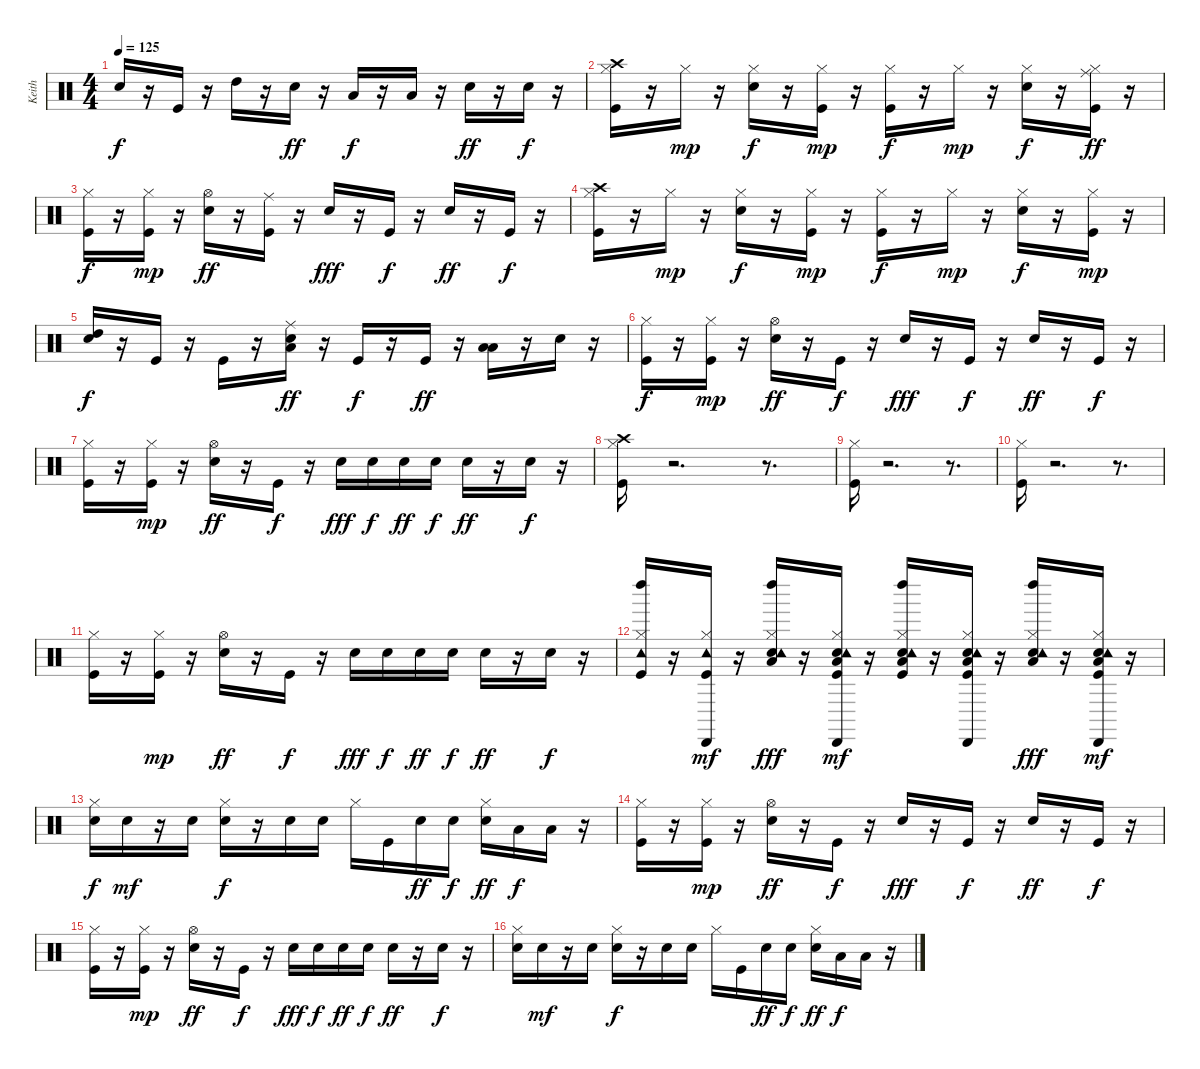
\track ("Keith" "Keith") {instrument percussion}
\staff {score}
\articulation defaults
\ts (4 4)
\tempo 125
\clef neutral
\ks c "Snare (hit) 2".16{dy f}
r.16 "Kick (hit)".16 r.16 "High Tom (hit)".16 r.16 "Snare (hit) 2".16{dy ff} r.16 "Low Tom (hit)".16{dy f} r.16 "Low Tom (hit)".16 r.16 "Snare (hit) 2".16{dy ff} r.16 "Snare (hit) 2".16{dy f} r.16 |
("Kick (hit)" "Hi-Hat (closed)" "Crash high (hit)").16 r.16 "Hi-Hat (closed)".16{dy mp} r.16 ("Snare (hit) 2" "Hi-Hat (closed)").16{dy f} r.16 ("Kick (hit)" "Hi-Hat (closed)").16{dy mp} r.16 ("Kick (hit)" "Hi-Hat (closed)").16{dy f} r.16 "Hi-Hat (closed)".16{dy mp} r.16 ("Snare (hit) 2" "Hi-Hat (closed)").16{dy f} r.16 ("Kick (hit)" "Hi-Hat (closed)" "Ride (middle)").16{dy ff} r.16 |
("Kick (hit)" "Hi-Hat (closed)").16{dy f} r.16 ("Kick (hit)" "Hi-Hat (closed)").16{dy mp} r.16 ("Snare (hit) 2" "Hi-Hat (open)").16{dy ff} r.16 ("Kick (hit)" "Ride (middle)").16 r.16 "Snare (hit) 2".16{dy fff} r.16 "Kick (hit)".16{dy f} r.16 "Snare (hit) 2".16{dy ff} r.16 "Kick (hit)".16{dy f} r.16 |
("Kick (hit)" "Hi-Hat (closed)" "Crash high (hit)").16 r.16 "Hi-Hat (closed)".16{dy mp} r.16 ("Snare (hit) 2" "Hi-Hat (closed)").16{dy f} r.16 ("Kick (hit)" "Hi-Hat (closed)").16{dy mp} r.16 ("Kick (hit)" "Hi-Hat (closed)").16{dy f} r.16 "Hi-Hat (closed)".16{dy mp} r.16 ("Snare (hit) 2" "Hi-Hat (closed)").16{dy f} r.16 ("Kick (hit)" "Hi-Hat (closed)").16{dy mp} r.16 |
("Snare (hit) 2" "High Tom (hit)").16{dy f} r.16 "Kick (hit)".16 r.16 "Kick (hit)".16 r.16 ("Snare (hit) 2" "Ride (middle)" "Low Tom (hit)").16{dy ff} r.16 "Kick (hit)".16{dy f} r.16 "Kick (hit)".16{dy ff} r.16 ("Low Floor Tom (hit)" "Low Tom (hit)").16 r.16 "Snare (hit) 2".16 r.16 |
("Kick (hit)" "Hi-Hat (closed)").16{dy f} r.16 ("Kick (hit)" "Hi-Hat (closed)").16{dy mp} r.16 ("Snare (hit) 2" "Hi-Hat (open)").16{dy ff} r.16 "Kick (hit)".16{dy f} r.16 "Snare (hit) 2".16{dy fff} r.16 "Kick (hit)".16{dy f} r.16 "Snare (hit) 2".16{dy ff} r.16 "Kick (hit)".16{dy f} r.16 |
("Kick (hit)" "Hi-Hat (closed)").16 r.16 ("Kick (hit)" "Hi-Hat (closed)").16{dy mp} r.16 ("Snare (hit) 2" "Hi-Hat (open)").16{dy ff} r.16 "Kick (hit)".16{dy f} r.16 "Snare (hit) 2".16{dy fff} "Snare (hit) 2".16{dy f} "Snare (hit) 2".16{dy ff} "Snare (hit) 2".16{dy f} "Snare (hit) 2".16{dy ff} r.16 "Snare (hit) 2".16{dy f} r.16 |
("Kick (hit)" "Hi-Hat (closed)" "Crash high (hit)").16 r.2{d} r.8{d} |
("Kick (hit)" "Hi-Hat (closed)").16 r.2{d} r.8{d} |
("Kick (hit)" "Hi-Hat (closed)").16 r.2{d} r.8{d} |
("Kick (hit)" "Hi-Hat (closed)").16 r.16 ("Kick (hit)" "Hi-Hat (closed)").16{dy mp} r.16 ("Snare (hit) 2" "Hi-Hat (open)").16{dy ff} r.16 "Kick (hit)".16{dy f} r.16 "Snare (hit) 2".16{dy fff} "Snare (hit) 2".16{dy f} "Snare (hit) 2".16{dy ff} "Snare (hit) 2".16{dy f} "Snare (hit) 2".16{dy ff} r.16 "Snare (hit) 2".16{dy f} r.16 |
("Kick (hit)" "Hi-Hat (closed)" "Tambourine (hit)" "Left Maraca (hit)").16 r.16 ("Kick (hit)" "Hi-Hat (closed)" "Tambourine (hit)" "Cabasa (hit)").16{dy mf} r.16 ("Snare (hit) 2" "Hi-Hat (closed)" "Low Floor Tom (hit)" "Tambourine (hit)" "Left Maraca (hit)").16{dy fff} r.16 ("Kick (hit)" "Snare (hit) 2" "Hi-Hat (closed)" "Low Floor Tom (hit)" "Tambourine (hit)" "Cabasa (hit)").16{dy mf} r.16 ("Kick (hit)" "Snare (hit) 2" "Hi-Hat (closed)" "Low Floor Tom (hit)" "Tambourine (hit)" "Left Maraca (hit)").16 r.16 ("Kick (hit)" "Snare (hit) 2" "Hi-Hat (closed)" "Low Floor Tom (hit)" "Tambourine (hit)" "Cabasa (hit)").16 r.16 ("Snare (hit) 2" "Hi-Hat (closed)" "Low Floor Tom (hit)" "Tambourine (hit)" "Left Maraca (hit)").16{dy fff} r.16 ("Kick (hit)" "Snare (hit) 2" "Hi-Hat (closed)" "Low Floor Tom (hit)" "Tambourine (hit)" "Cabasa (hit)").16{dy mf} r.16 |
("Snare (hit) 2" "Hi-Hat (closed)").16{dy f} "Snare (hit) 2".16{dy mf} r.16 "Snare (hit) 2".16 ("Snare (hit) 2" "Hi-Hat (closed)").16{dy f} r.16 "Snare (hit) 2".16 "Snare (hit) 2".16 "Hi-Hat (closed)".16 "Kick (hit)".16 "Snare (hit) 2".16{dy ff} "Snare (hit) 2".16{dy f} ("Snare (hit) 2" "Hi-Hat (closed)").16{dy ff} "Low Tom (hit)".16{dy f} "Low Floor Tom (hit)".16 r.16 |
("Kick (hit)" "Hi-Hat (closed)").16 r.16 ("Kick (hit)" "Hi-Hat (closed)").16{dy mp} r.16 ("Snare (hit) 2" "Hi-Hat (open)").16{dy ff} r.16 "Kick (hit)".16{dy f} r.16 "Snare (hit) 2".16{dy fff} r.16 "Kick (hit)".16{dy f} r.16 "Snare (hit) 2".16{dy ff} r.16 "Kick (hit)".16{dy f} r.16 |
("Kick (hit)" "Hi-Hat (closed)").16 r.16 ("Kick (hit)" "Hi-Hat (closed)").16{dy mp} r.16 ("Snare (hit) 2" "Hi-Hat (open)").16{dy ff} r.16 "Kick (hit)".16{dy f} r.16 "Snare (hit) 2".16{dy fff} "Snare (hit) 2".16{dy f} "Snare (hit) 2".16{dy ff} "Snare (hit) 2".16{dy f} "Snare (hit) 2".16{dy ff} r.16 "Snare (hit) 2".16{dy f} r.16 |
("Snare (hit) 2" "Hi-Hat (closed)").16 "Snare (hit) 2".16{dy mf} r.16 "Snare (hit) 2".16 ("Snare (hit) 2" "Hi-Hat (closed)").16{dy f} r.16 "Snare (hit) 2".16 "Snare (hit) 2".16 "Hi-Hat (closed)".16 "Kick (hit)".16 "Snare (hit) 2".16{dy ff} "Snare (hit) 2".16{dy f} ("Snare (hit) 2" "Hi-Hat (closed)").16{dy ff} "Low Tom (hit)".16{dy f} "Low Floor Tom (hit)".16 r.16
